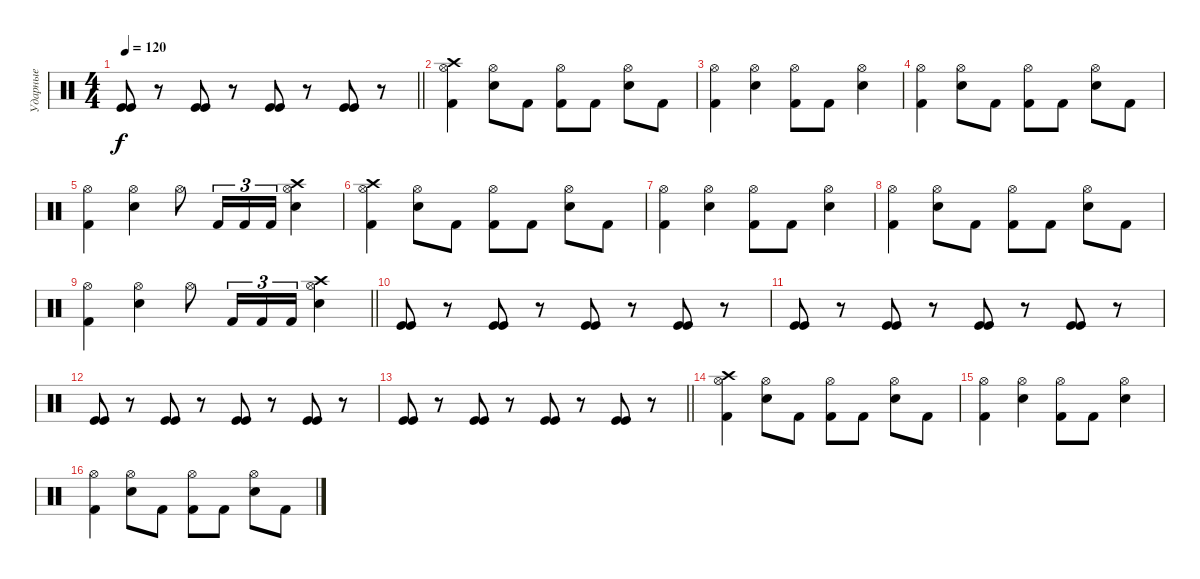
\track ("Ударные" "Ударные") {instrument percussion}
\staff {score}
\articulation defaults
\ts (4 4)
\tempo 120
\clef neutral
\barLineRight lightlight
\ks c
("Kick (hit)" "Kick (hit)").8{dy f} r.8 ("Kick (hit)" "Kick (hit)").8 r.8 ("Kick (hit)" "Kick (hit)").8 r.8 ("Kick (hit)" "Kick (hit)").8 r.8 |
("Kick (hit) 2" "Hi-Hat (open)" "Crash high (hit)").4 ("Snare (hit) 2" "Hi-Hat (open)").8 "Kick (hit) 2".8 ("Kick (hit) 2" "Hi-Hat (open)").8 "Kick (hit) 2".8 ("Snare (hit) 2" "Hi-Hat (open)").8 "Kick (hit) 2".8 |
("Kick (hit) 2" "Hi-Hat (open)").4 ("Snare (hit) 2" "Hi-Hat (open)").4 ("Kick (hit) 2" "Hi-Hat (open)").8 "Kick (hit) 2".8 ("Snare (hit) 2" "Hi-Hat (open)").4 |
("Kick (hit) 2" "Hi-Hat (open)").4 ("Snare (hit) 2" "Hi-Hat (open)").8 "Kick (hit) 2".8 ("Kick (hit) 2" "Hi-Hat (open)").8 "Kick (hit) 2".8 ("Snare (hit) 2" "Hi-Hat (open)").8 "Kick (hit) 2".8 |
("Kick (hit) 2" "Hi-Hat (open)").4 ("Snare (hit) 2" "Hi-Hat (open)").4 "Hi-Hat (open)".8 "Kick (hit) 2".16{tu (3 2)} "Kick (hit) 2".16{tu (3 2)} "Kick (hit) 2".16{tu (3 2)} ("Snare (hit) 2" "Hi-Hat (open)" "Crash high (hit)").4 |
("Kick (hit) 2" "Hi-Hat (open)" "Crash high (hit)").4 ("Snare (hit) 2" "Hi-Hat (open)").8 "Kick (hit) 2".8 ("Kick (hit) 2" "Hi-Hat (open)").8 "Kick (hit) 2".8 ("Snare (hit) 2" "Hi-Hat (open)").8 "Kick (hit) 2".8 |
("Kick (hit) 2" "Hi-Hat (open)").4 ("Snare (hit) 2" "Hi-Hat (open)").4 ("Kick (hit) 2" "Hi-Hat (open)").8 "Kick (hit) 2".8 ("Snare (hit) 2" "Hi-Hat (open)").4 |
("Kick (hit) 2" "Hi-Hat (open)").4 ("Snare (hit) 2" "Hi-Hat (open)").8 "Kick (hit) 2".8 ("Kick (hit) 2" "Hi-Hat (open)").8 "Kick (hit) 2".8 ("Snare (hit) 2" "Hi-Hat (open)").8 "Kick (hit) 2".8 |
\barLineRight lightlight
("Kick (hit) 2" "Hi-Hat (open)").4 ("Snare (hit) 2" "Hi-Hat (open)").4 "Hi-Hat (open)".8 "Kick (hit) 2".16{tu (3 2)} "Kick (hit) 2".16{tu (3 2)} "Kick (hit) 2".16{tu (3 2)} ("Snare (hit) 2" "Hi-Hat (open)" "Crash high (hit)").4 |
("Kick (hit)" "Kick (hit)").8 r.8 ("Kick (hit)" "Kick (hit)").8 r.8 ("Kick (hit)" "Kick (hit)").8 r.8 ("Kick (hit)" "Kick (hit)").8 r.8 |
("Kick (hit)" "Kick (hit)").8 r.8 ("Kick (hit)" "Kick (hit)").8 r.8 ("Kick (hit)" "Kick (hit)").8 r.8 ("Kick (hit)" "Kick (hit)").8 r.8 |
("Kick (hit)" "Kick (hit)").8 r.8 ("Kick (hit)" "Kick (hit)").8 r.8 ("Kick (hit)" "Kick (hit)").8 r.8 ("Kick (hit)" "Kick (hit)").8 r.8 |
\barLineRight lightlight
("Kick (hit)" "Kick (hit)").8 r.8 ("Kick (hit)" "Kick (hit)").8 r.8 ("Kick (hit)" "Kick (hit)").8 r.8 ("Kick (hit)" "Kick (hit)").8 r.8 |
("Kick (hit) 2" "Hi-Hat (open)" "Crash high (hit)").4 ("Snare (hit) 2" "Hi-Hat (open)").8 "Kick (hit) 2".8 ("Kick (hit) 2" "Hi-Hat (open)").8 "Kick (hit) 2".8 ("Snare (hit) 2" "Hi-Hat (open)").8 "Kick (hit) 2".8 |
("Kick (hit) 2" "Hi-Hat (open)").4 ("Snare (hit) 2" "Hi-Hat (open)").4 ("Kick (hit) 2" "Hi-Hat (open)").8 "Kick (hit) 2".8 ("Snare (hit) 2" "Hi-Hat (open)").4 |
("Kick (hit) 2" "Hi-Hat (open)").4 ("Snare (hit) 2" "Hi-Hat (open)").8 "Kick (hit) 2".8 ("Kick (hit) 2" "Hi-Hat (open)").8 "Kick (hit) 2".8 ("Snare (hit) 2" "Hi-Hat (open)").8 "Kick (hit) 2".8
